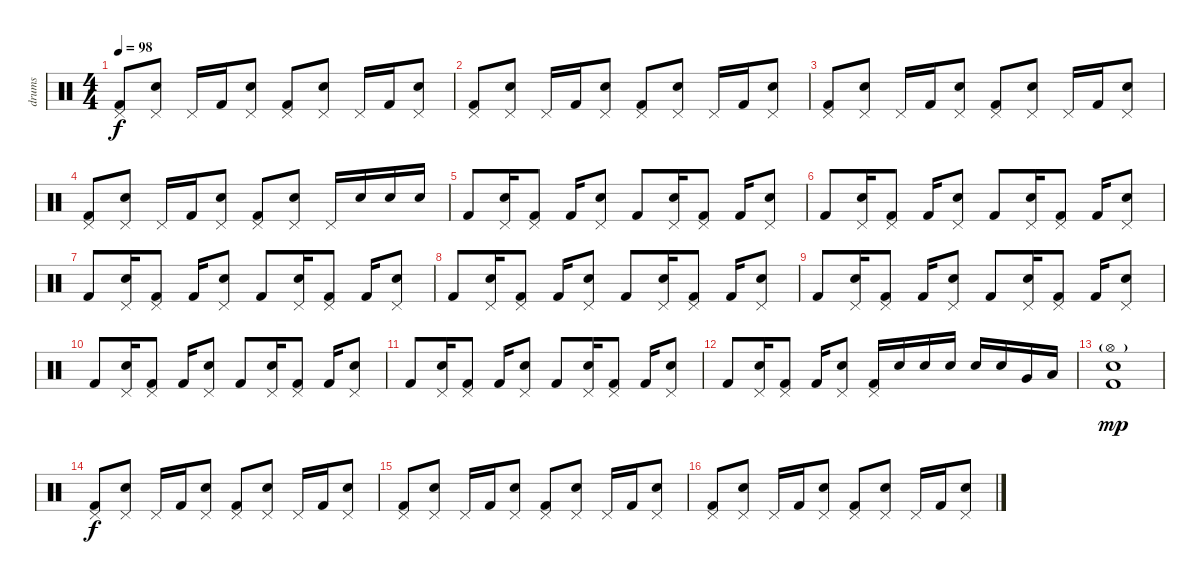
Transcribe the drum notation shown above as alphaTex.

\track ("drums" "drums") {instrument percussion}
\staff {score}
\articulation defaults
\ts (4 4)
\tempo 98
\clef neutral
\ks c
("Pedal Hi-Hat (hit)" "Kick (hit) 2").8{dy f} ("Pedal Hi-Hat (hit)" "Electric Snare (hit)").8 "Pedal Hi-Hat (hit)".16 "Kick (hit) 2".16 ("Pedal Hi-Hat (hit)" "Electric Snare (hit)").8 ("Pedal Hi-Hat (hit)" "Kick (hit) 2").8 ("Pedal Hi-Hat (hit)" "Electric Snare (hit)").8 "Pedal Hi-Hat (hit)".16 "Kick (hit) 2".16 ("Pedal Hi-Hat (hit)" "Electric Snare (hit)").8 |
("Pedal Hi-Hat (hit)" "Kick (hit) 2").8 ("Pedal Hi-Hat (hit)" "Electric Snare (hit)").8 "Pedal Hi-Hat (hit)".16 "Kick (hit) 2".16 ("Pedal Hi-Hat (hit)" "Electric Snare (hit)").8 ("Pedal Hi-Hat (hit)" "Kick (hit) 2").8 ("Pedal Hi-Hat (hit)" "Electric Snare (hit)").8 "Pedal Hi-Hat (hit)".16 "Kick (hit) 2".16 ("Pedal Hi-Hat (hit)" "Electric Snare (hit)").8 |
("Pedal Hi-Hat (hit)" "Kick (hit) 2").8 ("Pedal Hi-Hat (hit)" "Electric Snare (hit)").8 "Pedal Hi-Hat (hit)".16 "Kick (hit) 2".16 ("Pedal Hi-Hat (hit)" "Electric Snare (hit)").8 ("Pedal Hi-Hat (hit)" "Kick (hit) 2").8 ("Pedal Hi-Hat (hit)" "Electric Snare (hit)").8 "Pedal Hi-Hat (hit)".16 "Kick (hit) 2".16 ("Pedal Hi-Hat (hit)" "Electric Snare (hit)").8 |
("Pedal Hi-Hat (hit)" "Kick (hit) 2").8 ("Pedal Hi-Hat (hit)" "Electric Snare (hit)").8 "Pedal Hi-Hat (hit)".16 "Kick (hit) 2".16 ("Pedal Hi-Hat (hit)" "Electric Snare (hit)").8 ("Pedal Hi-Hat (hit)" "Kick (hit) 2").8 ("Pedal Hi-Hat (hit)" "Electric Snare (hit)").8 "Pedal Hi-Hat (hit)".16 "Electric Snare (hit)".16 "Electric Snare (hit)".16 "Electric Snare (hit)".16 |
"Kick (hit) 2".8 ("Pedal Hi-Hat (hit)" "Electric Snare (hit)").16 ("Pedal Hi-Hat (hit)" "Kick (hit) 2").8 "Kick (hit) 2".16 ("Pedal Hi-Hat (hit)" "Electric Snare (hit)").8 "Kick (hit) 2".8 ("Pedal Hi-Hat (hit)" "Electric Snare (hit)").16 ("Pedal Hi-Hat (hit)" "Kick (hit) 2").8 "Kick (hit) 2".16 ("Pedal Hi-Hat (hit)" "Electric Snare (hit)").8 |
"Kick (hit) 2".8 ("Pedal Hi-Hat (hit)" "Electric Snare (hit)").16 ("Pedal Hi-Hat (hit)" "Kick (hit) 2").8 "Kick (hit) 2".16 ("Pedal Hi-Hat (hit)" "Electric Snare (hit)").8 "Kick (hit) 2".8 ("Pedal Hi-Hat (hit)" "Electric Snare (hit)").16 ("Pedal Hi-Hat (hit)" "Kick (hit) 2").8 "Kick (hit) 2".16 ("Pedal Hi-Hat (hit)" "Electric Snare (hit)").8 |
"Kick (hit) 2".8 ("Pedal Hi-Hat (hit)" "Electric Snare (hit)").16 ("Pedal Hi-Hat (hit)" "Kick (hit) 2").8 "Kick (hit) 2".16 ("Pedal Hi-Hat (hit)" "Electric Snare (hit)").8 "Kick (hit) 2".8 ("Pedal Hi-Hat (hit)" "Electric Snare (hit)").16 ("Pedal Hi-Hat (hit)" "Kick (hit) 2").8 "Kick (hit) 2".16 ("Pedal Hi-Hat (hit)" "Electric Snare (hit)").8 |
"Kick (hit) 2".8 ("Pedal Hi-Hat (hit)" "Electric Snare (hit)").16 ("Pedal Hi-Hat (hit)" "Kick (hit) 2").8 "Kick (hit) 2".16 ("Pedal Hi-Hat (hit)" "Electric Snare (hit)").8 "Kick (hit) 2".8 ("Pedal Hi-Hat (hit)" "Electric Snare (hit)").16 ("Pedal Hi-Hat (hit)" "Kick (hit) 2").8 "Kick (hit) 2".16 ("Pedal Hi-Hat (hit)" "Electric Snare (hit)").8 |
"Kick (hit) 2".8 ("Pedal Hi-Hat (hit)" "Electric Snare (hit)").16 ("Pedal Hi-Hat (hit)" "Kick (hit) 2").8 "Kick (hit) 2".16 ("Pedal Hi-Hat (hit)" "Electric Snare (hit)").8 "Kick (hit) 2".8 ("Pedal Hi-Hat (hit)" "Electric Snare (hit)").16 ("Pedal Hi-Hat (hit)" "Kick (hit) 2").8 "Kick (hit) 2".16 ("Pedal Hi-Hat (hit)" "Electric Snare (hit)").8 |
"Kick (hit) 2".8 ("Pedal Hi-Hat (hit)" "Electric Snare (hit)").16 ("Pedal Hi-Hat (hit)" "Kick (hit) 2").8 "Kick (hit) 2".16 ("Pedal Hi-Hat (hit)" "Electric Snare (hit)").8 "Kick (hit) 2".8 ("Pedal Hi-Hat (hit)" "Electric Snare (hit)").16 ("Pedal Hi-Hat (hit)" "Kick (hit) 2").8 "Kick (hit) 2".16 ("Pedal Hi-Hat (hit)" "Electric Snare (hit)").8 |
"Kick (hit) 2".8 ("Pedal Hi-Hat (hit)" "Electric Snare (hit)").16 ("Pedal Hi-Hat (hit)" "Kick (hit) 2").8 "Kick (hit) 2".16 ("Pedal Hi-Hat (hit)" "Electric Snare (hit)").8 "Kick (hit) 2".8 ("Pedal Hi-Hat (hit)" "Electric Snare (hit)").16 ("Pedal Hi-Hat (hit)" "Kick (hit) 2").8 "Kick (hit) 2".16 ("Pedal Hi-Hat (hit)" "Electric Snare (hit)").8 |
"Kick (hit) 2".8 ("Pedal Hi-Hat (hit)" "Electric Snare (hit)").16 ("Pedal Hi-Hat (hit)" "Kick (hit) 2").8 "Kick (hit) 2".16 ("Pedal Hi-Hat (hit)" "Electric Snare (hit)").8 ("Pedal Hi-Hat (hit)" "Kick (hit) 2").16 "Electric Snare (hit)".16 "Electric Snare (hit)".16 "Electric Snare (hit)".16 "Electric Snare (hit)".16 "Electric Snare (hit)".16 "Very Low Tom (hit)".16 "Low Tom (hit)".16 |
("Hi-Hat (open)"{g} "Electric Snare (hit)" "Kick (hit) 2").1{dy mp} |
("Pedal Hi-Hat (hit)" "Kick (hit) 2").8{dy f} ("Pedal Hi-Hat (hit)" "Electric Snare (hit)").8 "Pedal Hi-Hat (hit)".16 "Kick (hit) 2".16 ("Pedal Hi-Hat (hit)" "Electric Snare (hit)").8 ("Pedal Hi-Hat (hit)" "Kick (hit) 2").8 ("Pedal Hi-Hat (hit)" "Electric Snare (hit)").8 "Pedal Hi-Hat (hit)".16 "Kick (hit) 2".16 ("Pedal Hi-Hat (hit)" "Electric Snare (hit)").8 |
("Pedal Hi-Hat (hit)" "Kick (hit) 2").8 ("Pedal Hi-Hat (hit)" "Electric Snare (hit)").8 "Pedal Hi-Hat (hit)".16 "Kick (hit) 2".16 ("Pedal Hi-Hat (hit)" "Electric Snare (hit)").8 ("Pedal Hi-Hat (hit)" "Kick (hit) 2").8 ("Pedal Hi-Hat (hit)" "Electric Snare (hit)").8 "Pedal Hi-Hat (hit)".16 "Kick (hit) 2".16 ("Pedal Hi-Hat (hit)" "Electric Snare (hit)").8 |
("Pedal Hi-Hat (hit)" "Kick (hit) 2").8 ("Pedal Hi-Hat (hit)" "Electric Snare (hit)").8 "Pedal Hi-Hat (hit)".16 "Kick (hit) 2".16 ("Pedal Hi-Hat (hit)" "Electric Snare (hit)").8 ("Pedal Hi-Hat (hit)" "Kick (hit) 2").8 ("Pedal Hi-Hat (hit)" "Electric Snare (hit)").8 "Pedal Hi-Hat (hit)".16 "Kick (hit) 2".16 ("Pedal Hi-Hat (hit)" "Electric Snare (hit)").8
